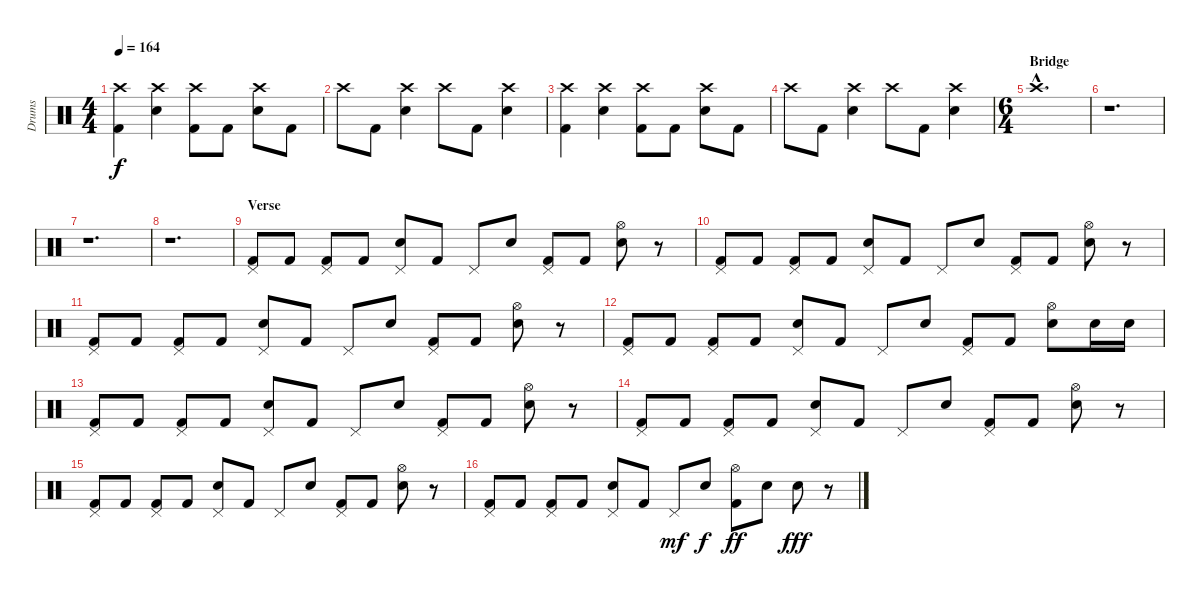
\track ("Drums" "Drums") {instrument percussion}
\staff {score}
\articulation defaults
\ts (4 4)
\tempo 164
\clef neutral
\ks c
("Crash high (hit)" "Kick (hit) 2").4{dy f} ("Crash high (hit)" "Electric Snare (hit)").4 ("Crash high (hit)" "Kick (hit) 2").8 "Kick (hit) 2".8 ("Crash high (hit)" "Electric Snare (hit)").8 "Kick (hit) 2".8 |
"Crash high (hit)".8 "Kick (hit) 2".8 ("Crash high (hit)" "Electric Snare (hit)").4 "Crash high (hit)".8 "Kick (hit) 2".8 ("Crash high (hit)" "Electric Snare (hit)").4 |
("Crash high (hit)" "Kick (hit) 2").4 ("Crash high (hit)" "Electric Snare (hit)").4 ("Crash high (hit)" "Kick (hit) 2").8 "Kick (hit) 2".8 ("Crash high (hit)" "Electric Snare (hit)").8 "Kick (hit) 2".8 |
"Crash high (hit)".8 "Kick (hit) 2".8 ("Crash high (hit)" "Electric Snare (hit)").4 "Crash high (hit)".8 "Kick (hit) 2".8 ("Crash high (hit)" "Electric Snare (hit)").4 |
\ts (6 4)
\section ("" "Bridge")
"Crash high (hit)"{hac}.1{d} |
r.1{d} |
r.1{d} |
r.1{d} |
\section ("" "Verse")
("Pedal Hi-Hat (hit)" "Kick (hit) 2").8 "Kick (hit) 2".8 ("Pedal Hi-Hat (hit)" "Kick (hit) 2").8 "Kick (hit) 2".8 ("Pedal Hi-Hat (hit)" "Electric Snare (hit)").8 "Kick (hit) 2".8 "Pedal Hi-Hat (hit)".8 "Electric Snare (hit)".8 ("Pedal Hi-Hat (hit)" "Kick (hit) 2").8 "Kick (hit) 2".8 ("Hi-Hat (open)" "Electric Snare (hit)").8 r.8 |
("Pedal Hi-Hat (hit)" "Kick (hit) 2").8 "Kick (hit) 2".8 ("Pedal Hi-Hat (hit)" "Kick (hit) 2").8 "Kick (hit) 2".8 ("Pedal Hi-Hat (hit)" "Electric Snare (hit)").8 "Kick (hit) 2".8 "Pedal Hi-Hat (hit)".8 "Electric Snare (hit)".8 ("Pedal Hi-Hat (hit)" "Kick (hit) 2").8 "Kick (hit) 2".8 ("Hi-Hat (open)" "Electric Snare (hit)").8 r.8 |
("Pedal Hi-Hat (hit)" "Kick (hit) 2").8 "Kick (hit) 2".8 ("Pedal Hi-Hat (hit)" "Kick (hit) 2").8 "Kick (hit) 2".8 ("Pedal Hi-Hat (hit)" "Electric Snare (hit)").8 "Kick (hit) 2".8 "Pedal Hi-Hat (hit)".8 "Electric Snare (hit)".8 ("Pedal Hi-Hat (hit)" "Kick (hit) 2").8 "Kick (hit) 2".8 ("Hi-Hat (open)" "Electric Snare (hit)").8 r.8 |
("Pedal Hi-Hat (hit)" "Kick (hit) 2").8 "Kick (hit) 2".8 ("Pedal Hi-Hat (hit)" "Kick (hit) 2").8 "Kick (hit) 2".8 ("Pedal Hi-Hat (hit)" "Electric Snare (hit)").8 "Kick (hit) 2".8 "Pedal Hi-Hat (hit)".8 "Electric Snare (hit)".8 ("Pedal Hi-Hat (hit)" "Kick (hit) 2").8 "Kick (hit) 2".8 ("Hi-Hat (open)" "Electric Snare (hit)").8 "Electric Snare (hit)".16 "Electric Snare (hit)".16 |
("Pedal Hi-Hat (hit)" "Kick (hit) 2").8 "Kick (hit) 2".8 ("Pedal Hi-Hat (hit)" "Kick (hit) 2").8 "Kick (hit) 2".8 ("Pedal Hi-Hat (hit)" "Electric Snare (hit)").8 "Kick (hit) 2".8 "Pedal Hi-Hat (hit)".8 "Electric Snare (hit)".8 ("Pedal Hi-Hat (hit)" "Kick (hit) 2").8 "Kick (hit) 2".8 ("Hi-Hat (open)" "Electric Snare (hit)").8 r.8 |
("Pedal Hi-Hat (hit)" "Kick (hit) 2").8 "Kick (hit) 2".8 ("Pedal Hi-Hat (hit)" "Kick (hit) 2").8 "Kick (hit) 2".8 ("Pedal Hi-Hat (hit)" "Electric Snare (hit)").8 "Kick (hit) 2".8 "Pedal Hi-Hat (hit)".8 "Electric Snare (hit)".8 ("Pedal Hi-Hat (hit)" "Kick (hit) 2").8 "Kick (hit) 2".8 ("Hi-Hat (open)" "Electric Snare (hit)").8 r.8 |
("Pedal Hi-Hat (hit)" "Kick (hit) 2").8 "Kick (hit) 2".8 ("Pedal Hi-Hat (hit)" "Kick (hit) 2").8 "Kick (hit) 2".8 ("Pedal Hi-Hat (hit)" "Electric Snare (hit)").8 "Kick (hit) 2".8 "Pedal Hi-Hat (hit)".8 "Electric Snare (hit)".8 ("Pedal Hi-Hat (hit)" "Kick (hit) 2").8 "Kick (hit) 2".8 ("Hi-Hat (open)" "Electric Snare (hit)").8 r.8 |
("Pedal Hi-Hat (hit)" "Kick (hit) 2").8 "Kick (hit) 2".8 ("Pedal Hi-Hat (hit)" "Kick (hit) 2").8 "Kick (hit) 2".8 ("Pedal Hi-Hat (hit)" "Electric Snare (hit)").8 "Kick (hit) 2".8 "Pedal Hi-Hat (hit)".8{dy mf} "Electric Snare (hit)".8{dy f} ("Hi-Hat (open)" "Kick (hit) 2").8{dy ff} "Electric Snare (hit)".8 "Electric Snare (hit)".8{dy fff} r.8
